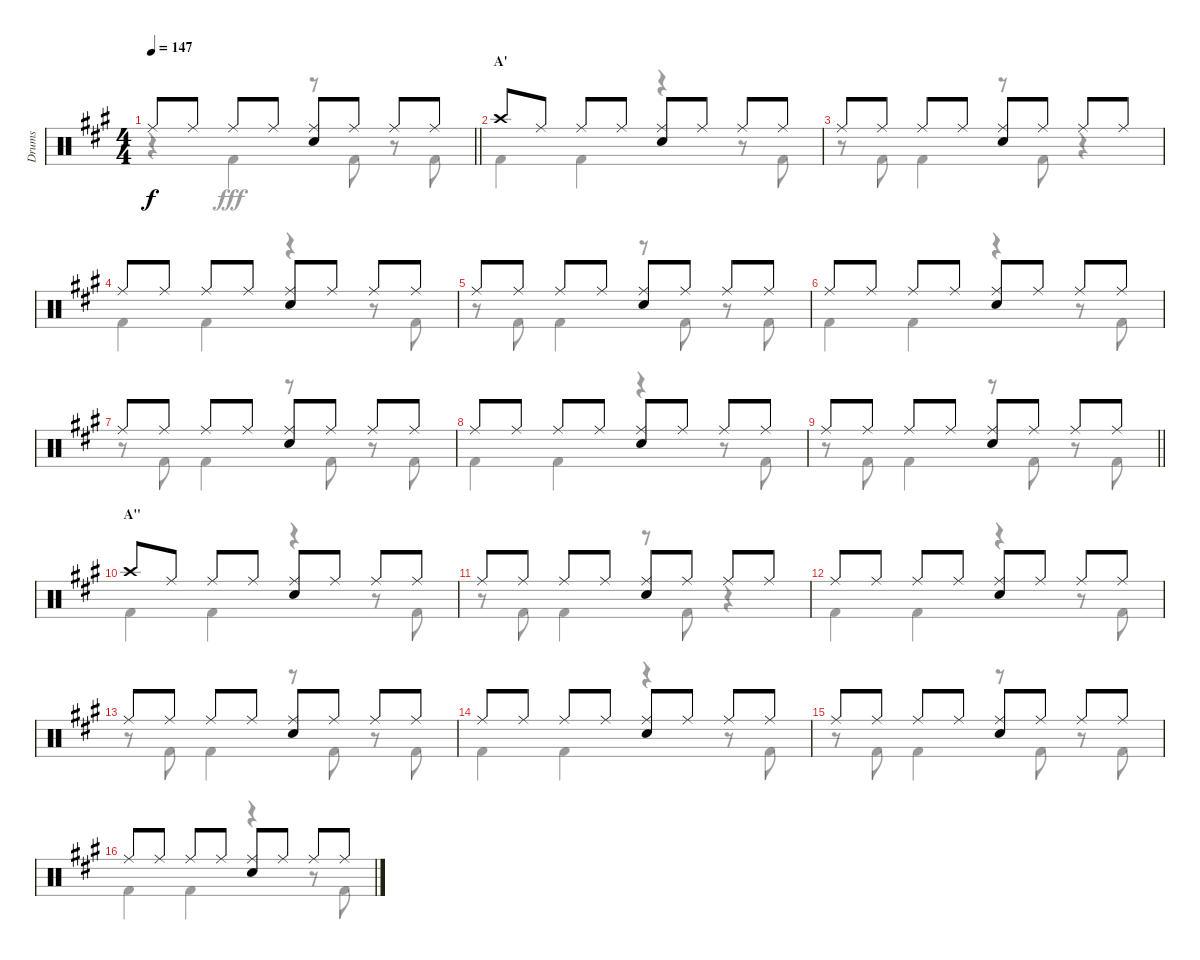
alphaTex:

\track ("Drums" "Drums") {instrument percussion}
\staff {score}
\articulation defaults
\voice
\ts (4 4)
\tempo 147
\clef neutral
\barLineRight lightlight
\ks a "Ride (middle)".8{dy f} "Ride (middle)".8 "Ride (middle)".8 "Ride (middle)".8
("Ride (middle)" "Snare (hit) 2").8 "Ride (middle)".8 "Ride (middle)".8 "Ride (middle)".8 |
\section ("" "A'")
"Crash high (hit)".8 "Ride (middle)".8 "Ride (middle)".8 "Ride (middle)".8 ("Ride (middle)" "Snare (hit) 2").8 "Ride (middle)".8 "Ride (middle)".8 "Ride (middle)".8 |
"Ride (middle)".8 "Ride (middle)".8 "Ride (middle)".8 "Ride (middle)".8 ("Ride (middle)" "Snare (hit) 2").8 "Ride (middle)".8 "Ride (middle)".8 "Ride (middle)".8 |
"Ride (middle)".8 "Ride (middle)".8 "Ride (middle)".8 "Ride (middle)".8 ("Ride (middle)" "Snare (hit) 2").8 "Ride (middle)".8 "Ride (middle)".8 "Ride (middle)".8 |
"Ride (middle)".8 "Ride (middle)".8 "Ride (middle)".8 "Ride (middle)".8 ("Ride (middle)" "Snare (hit) 2").8 "Ride (middle)".8 "Ride (middle)".8 "Ride (middle)".8 |
"Ride (middle)".8 "Ride (middle)".8 "Ride (middle)".8 "Ride (middle)".8 ("Ride (middle)" "Snare (hit) 2").8 "Ride (middle)".8 "Ride (middle)".8 "Ride (middle)".8 |
"Ride (middle)".8 "Ride (middle)".8 "Ride (middle)".8 "Ride (middle)".8 ("Ride (middle)" "Snare (hit) 2").8 "Ride (middle)".8 "Ride (middle)".8 "Ride (middle)".8 |
"Ride (middle)".8 "Ride (middle)".8 "Ride (middle)".8 "Ride (middle)".8 ("Ride (middle)" "Snare (hit) 2").8 "Ride (middle)".8 "Ride (middle)".8 "Ride (middle)".8 |
\barLineRight lightlight "Ride (middle)".8 "Ride (middle)".8 "Ride (middle)".8 "Ride (middle)".8
("Ride (middle)" "Snare (hit) 2").8 "Ride (middle)".8 "Ride (middle)".8 "Ride (middle)".8 |
\section ("" "A\"")
"Crash high (hit)".8 "Ride (middle)".8 "Ride (middle)".8 "Ride (middle)".8 ("Ride (middle)" "Snare (hit) 2").8 "Ride (middle)".8 "Ride (middle)".8 "Ride (middle)".8 |
"Ride (middle)".8 "Ride (middle)".8 "Ride (middle)".8 "Ride (middle)".8 ("Ride (middle)" "Snare (hit) 2").8 "Ride (middle)".8 "Ride (middle)".8 "Ride (middle)".8 |
"Ride (middle)".8 "Ride (middle)".8 "Ride (middle)".8 "Ride (middle)".8 ("Ride (middle)" "Snare (hit) 2").8 "Ride (middle)".8 "Ride (middle)".8 "Ride (middle)".8 |
"Ride (middle)".8 "Ride (middle)".8 "Ride (middle)".8 "Ride (middle)".8 ("Ride (middle)" "Snare (hit) 2").8 "Ride (middle)".8 "Ride (middle)".8 "Ride (middle)".8 |
"Ride (middle)".8 "Ride (middle)".8 "Ride (middle)".8 "Ride (middle)".8 ("Ride (middle)" "Snare (hit) 2").8 "Ride (middle)".8 "Ride (middle)".8 "Ride (middle)".8 |
"Ride (middle)".8 "Ride (middle)".8 "Ride (middle)".8 "Ride (middle)".8 ("Ride (middle)" "Snare (hit) 2").8 "Ride (middle)".8 "Ride (middle)".8 "Ride (middle)".8 |
"Ride (middle)".8 "Ride (middle)".8 "Ride (middle)".8 "Ride (middle)".8 ("Ride (middle)" "Snare (hit) 2").8 "Ride (middle)".8 "Ride (middle)".8 "Ride (middle)".8
\voice
\clef neutral
\ottava regular
\simile none
\barLineRight lightlight
\ks a
r.4{dy fff} "Kick (hit) 2".4 r.8 "Kick (hit) 2".8 r.8 "Kick (hit) 2".8 |
"Kick (hit) 2".4 "Kick (hit) 2".4 r.4 r.8 "Kick (hit) 2".8 |
r.8 "Kick (hit) 2".8 "Kick (hit) 2".4 r.8 "Kick (hit) 2".8 r.4 |
"Kick (hit) 2".4 "Kick (hit) 2".4 r.4 r.8 "Kick (hit) 2".8 |
r.8 "Kick (hit) 2".8 "Kick (hit) 2".4 r.8 "Kick (hit) 2".8 r.8 "Kick (hit) 2".8 |
"Kick (hit) 2".4 "Kick (hit) 2".4 r.4 r.8 "Kick (hit) 2".8 |
r.8 "Kick (hit) 2".8 "Kick (hit) 2".4 r.8 "Kick (hit) 2".8 r.8 "Kick (hit) 2".8 |
"Kick (hit) 2".4 "Kick (hit) 2".4 r.4 r.8 "Kick (hit) 2".8 |
\barLineRight lightlight
r.8 "Kick (hit) 2".8 "Kick (hit) 2".4 r.8 "Kick (hit) 2".8 r.8 "Kick (hit) 2".8 |
"Kick (hit) 2".4 "Kick (hit) 2".4 r.4 r.8 "Kick (hit) 2".8 |
r.8 "Kick (hit) 2".8 "Kick (hit) 2".4 r.8 "Kick (hit) 2".8 r.4 |
"Kick (hit) 2".4 "Kick (hit) 2".4 r.4 r.8 "Kick (hit) 2".8 |
r.8 "Kick (hit) 2".8 "Kick (hit) 2".4 r.8 "Kick (hit) 2".8 r.8 "Kick (hit) 2".8 |
"Kick (hit) 2".4 "Kick (hit) 2".4 r.4 r.8 "Kick (hit) 2".8 |
r.8 "Kick (hit) 2".8 "Kick (hit) 2".4 r.8 "Kick (hit) 2".8 r.8 "Kick (hit) 2".8 |
"Kick (hit) 2".4 "Kick (hit) 2".4 r.4 r.8 "Kick (hit) 2".8
